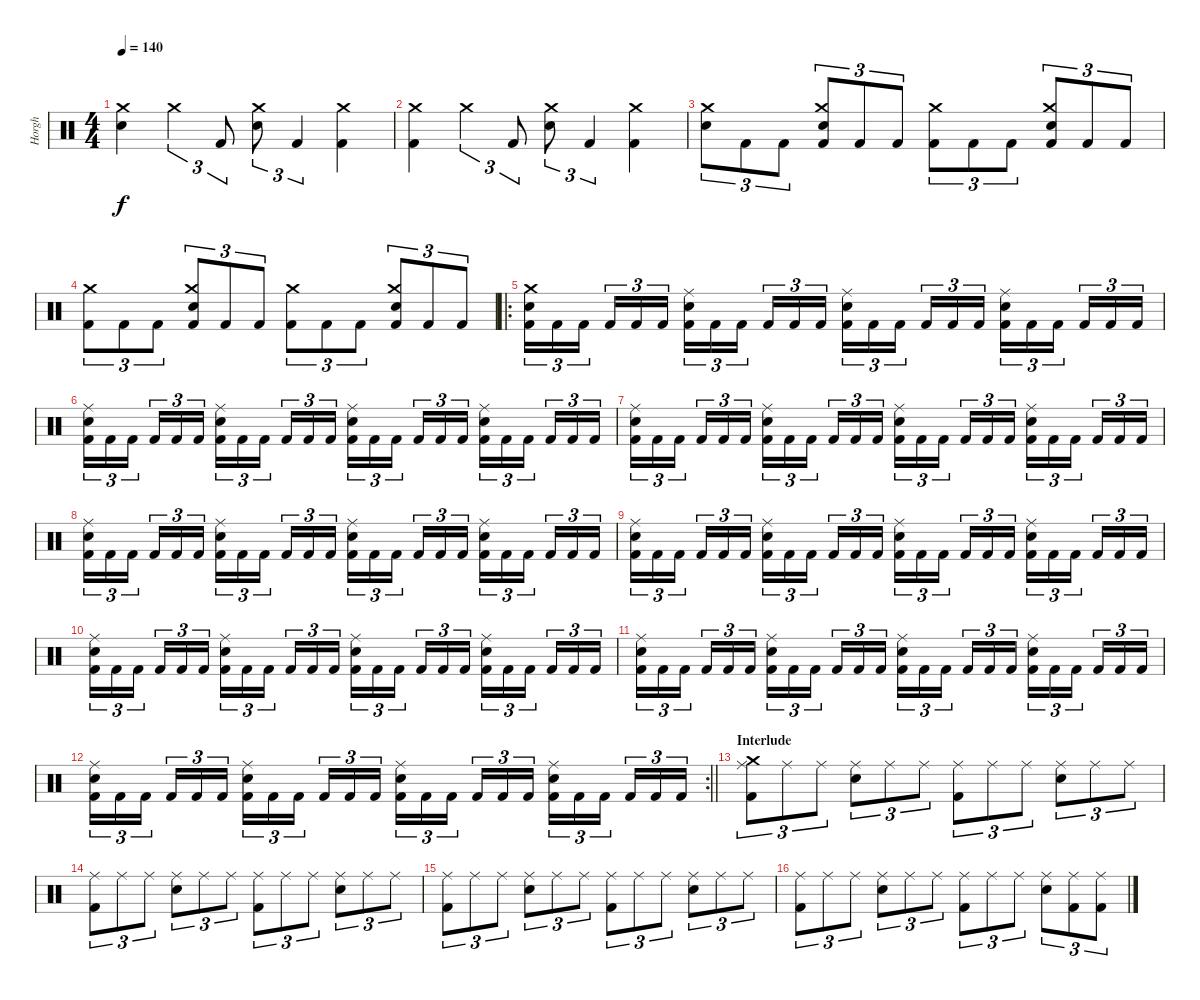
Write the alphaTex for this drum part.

\track ("Horgh" "Horgh") {instrument percussion}
\staff {score}
\articulation defaults
\ts (4 4)
\tempo 140
\clef neutral
\ks c
("Electric Snare (hit)" "Crash medium (hit)").4{dy f} "Crash medium (hit)".4{tu (3 2)} "Kick (hit) 2".8{tu (3 2)} ("Electric Snare (hit)" "Crash medium (hit)").8{tu (3 2)} "Kick (hit) 2".4{tu (3 2)} ("Kick (hit) 2" "Crash medium (hit)").4 |
("Kick (hit) 2" "Crash medium (hit)").4 "Crash medium (hit)".4{tu (3 2)} "Kick (hit) 2".8{tu (3 2)} ("Electric Snare (hit)" "Crash medium (hit)").8{tu (3 2)} "Kick (hit) 2".4{tu (3 2)} ("Kick (hit) 2" "Crash medium (hit)").4 |
("Electric Snare (hit)" "Crash medium (hit)").8{tu (3 2)} "Kick (hit) 2".8{tu (3 2)} "Kick (hit) 2".8{tu (3 2)} ("Kick (hit) 2" "Electric Snare (hit)" "Crash medium (hit)").8{tu (3 2)} "Kick (hit) 2".8{tu (3 2)} "Kick (hit) 2".8{tu (3 2)} ("Kick (hit) 2" "Crash medium (hit)").8{tu (3 2)} "Kick (hit) 2".8{tu (3 2)} "Kick (hit) 2".8{tu (3 2)} ("Kick (hit) 2" "Electric Snare (hit)" "Crash medium (hit)").8{tu (3 2)} "Kick (hit) 2".8{tu (3 2)} "Kick (hit) 2".8{tu (3 2)} |
("Kick (hit) 2" "Crash medium (hit)").8{tu (3 2)} "Kick (hit) 2".8{tu (3 2)} "Kick (hit) 2".8{tu (3 2)} ("Kick (hit) 2" "Electric Snare (hit)" "Crash medium (hit)").8{tu (3 2)} "Kick (hit) 2".8{tu (3 2)} "Kick (hit) 2".8{tu (3 2)} ("Kick (hit) 2" "Crash medium (hit)").8{tu (3 2)} "Kick (hit) 2".8{tu (3 2)} "Kick (hit) 2".8{tu (3 2)} ("Kick (hit) 2" "Electric Snare (hit)" "Crash medium (hit)").8{tu (3 2)} "Kick (hit) 2".8{tu (3 2)} "Kick (hit) 2".8{tu (3 2)} |
\ro
("Kick (hit) 2" "Snare (hit) 2" "Crash medium (hit)").16{tu (3 2)} "Kick (hit) 2".16{tu (3 2)} "Kick (hit) 2".16{tu (3 2) beam splitsecondary} "Kick (hit) 2".16{tu (3 2)} "Kick (hit) 2".16{tu (3 2)} "Kick (hit) 2".16{tu (3 2)} ("Kick (hit) 2" "Snare (hit) 2" "Ride (middle)").16{tu (3 2)} "Kick (hit) 2".16{tu (3 2)} "Kick (hit) 2".16{tu (3 2) beam splitsecondary} "Kick (hit) 2".16{tu (3 2)} "Kick (hit) 2".16{tu (3 2)} "Kick (hit) 2".16{tu (3 2)} ("Kick (hit) 2" "Snare (hit) 2" "Ride (middle)").16{tu (3 2)} "Kick (hit) 2".16{tu (3 2)} "Kick (hit) 2".16{tu (3 2) beam splitsecondary} "Kick (hit) 2".16{tu (3 2)} "Kick (hit) 2".16{tu (3 2)} "Kick (hit) 2".16{tu (3 2)} ("Kick (hit) 2" "Snare (hit) 2" "Ride (middle)").16{tu (3 2)} "Kick (hit) 2".16{tu (3 2)} "Kick (hit) 2".16{tu (3 2) beam splitsecondary} "Kick (hit) 2".16{tu (3 2)} "Kick (hit) 2".16{tu (3 2)} "Kick (hit) 2".16{tu (3 2)} |
("Kick (hit) 2" "Snare (hit) 2" "Ride (middle)").16{tu (3 2)} "Kick (hit) 2".16{tu (3 2)} "Kick (hit) 2".16{tu (3 2) beam splitsecondary} "Kick (hit) 2".16{tu (3 2)} "Kick (hit) 2".16{tu (3 2)} "Kick (hit) 2".16{tu (3 2)} ("Kick (hit) 2" "Snare (hit) 2" "Ride (middle)").16{tu (3 2)} "Kick (hit) 2".16{tu (3 2)} "Kick (hit) 2".16{tu (3 2) beam splitsecondary} "Kick (hit) 2".16{tu (3 2)} "Kick (hit) 2".16{tu (3 2)} "Kick (hit) 2".16{tu (3 2)} ("Kick (hit) 2" "Snare (hit) 2" "Ride (middle)").16{tu (3 2)} "Kick (hit) 2".16{tu (3 2)} "Kick (hit) 2".16{tu (3 2) beam splitsecondary} "Kick (hit) 2".16{tu (3 2)} "Kick (hit) 2".16{tu (3 2)} "Kick (hit) 2".16{tu (3 2)} ("Kick (hit) 2" "Snare (hit) 2" "Ride (middle)").16{tu (3 2)} "Kick (hit) 2".16{tu (3 2)} "Kick (hit) 2".16{tu (3 2) beam splitsecondary} "Kick (hit) 2".16{tu (3 2)} "Kick (hit) 2".16{tu (3 2)} "Kick (hit) 2".16{tu (3 2)} |
("Kick (hit) 2" "Snare (hit) 2" "Ride (middle)").16{tu (3 2)} "Kick (hit) 2".16{tu (3 2)} "Kick (hit) 2".16{tu (3 2) beam splitsecondary} "Kick (hit) 2".16{tu (3 2)} "Kick (hit) 2".16{tu (3 2)} "Kick (hit) 2".16{tu (3 2)} ("Kick (hit) 2" "Snare (hit) 2" "Ride (middle)").16{tu (3 2)} "Kick (hit) 2".16{tu (3 2)} "Kick (hit) 2".16{tu (3 2) beam splitsecondary} "Kick (hit) 2".16{tu (3 2)} "Kick (hit) 2".16{tu (3 2)} "Kick (hit) 2".16{tu (3 2)} ("Kick (hit) 2" "Snare (hit) 2" "Ride (middle)").16{tu (3 2)} "Kick (hit) 2".16{tu (3 2)} "Kick (hit) 2".16{tu (3 2) beam splitsecondary} "Kick (hit) 2".16{tu (3 2)} "Kick (hit) 2".16{tu (3 2)} "Kick (hit) 2".16{tu (3 2)} ("Kick (hit) 2" "Snare (hit) 2" "Ride (middle)").16{tu (3 2)} "Kick (hit) 2".16{tu (3 2)} "Kick (hit) 2".16{tu (3 2) beam splitsecondary} "Kick (hit) 2".16{tu (3 2)} "Kick (hit) 2".16{tu (3 2)} "Kick (hit) 2".16{tu (3 2)} |
("Kick (hit) 2" "Snare (hit) 2" "Ride (middle)").16{tu (3 2)} "Kick (hit) 2".16{tu (3 2)} "Kick (hit) 2".16{tu (3 2) beam splitsecondary} "Kick (hit) 2".16{tu (3 2)} "Kick (hit) 2".16{tu (3 2)} "Kick (hit) 2".16{tu (3 2)} ("Kick (hit) 2" "Snare (hit) 2" "Ride (middle)").16{tu (3 2)} "Kick (hit) 2".16{tu (3 2)} "Kick (hit) 2".16{tu (3 2) beam splitsecondary} "Kick (hit) 2".16{tu (3 2)} "Kick (hit) 2".16{tu (3 2)} "Kick (hit) 2".16{tu (3 2)} ("Kick (hit) 2" "Snare (hit) 2" "Ride (middle)").16{tu (3 2)} "Kick (hit) 2".16{tu (3 2)} "Kick (hit) 2".16{tu (3 2) beam splitsecondary} "Kick (hit) 2".16{tu (3 2)} "Kick (hit) 2".16{tu (3 2)} "Kick (hit) 2".16{tu (3 2)} ("Kick (hit) 2" "Snare (hit) 2" "Ride (middle)").16{tu (3 2)} "Kick (hit) 2".16{tu (3 2)} "Kick (hit) 2".16{tu (3 2) beam splitsecondary} "Kick (hit) 2".16{tu (3 2)} "Kick (hit) 2".16{tu (3 2)} "Kick (hit) 2".16{tu (3 2)} |
("Kick (hit) 2" "Snare (hit) 2" "Ride (middle)").16{tu (3 2)} "Kick (hit) 2".16{tu (3 2)} "Kick (hit) 2".16{tu (3 2) beam splitsecondary} "Kick (hit) 2".16{tu (3 2)} "Kick (hit) 2".16{tu (3 2)} "Kick (hit) 2".16{tu (3 2)} ("Kick (hit) 2" "Snare (hit) 2" "Ride (middle)").16{tu (3 2)} "Kick (hit) 2".16{tu (3 2)} "Kick (hit) 2".16{tu (3 2) beam splitsecondary} "Kick (hit) 2".16{tu (3 2)} "Kick (hit) 2".16{tu (3 2)} "Kick (hit) 2".16{tu (3 2)} ("Kick (hit) 2" "Snare (hit) 2" "Ride (middle)").16{tu (3 2)} "Kick (hit) 2".16{tu (3 2)} "Kick (hit) 2".16{tu (3 2) beam splitsecondary} "Kick (hit) 2".16{tu (3 2)} "Kick (hit) 2".16{tu (3 2)} "Kick (hit) 2".16{tu (3 2)} ("Kick (hit) 2" "Snare (hit) 2" "Ride (middle)").16{tu (3 2)} "Kick (hit) 2".16{tu (3 2)} "Kick (hit) 2".16{tu (3 2) beam splitsecondary} "Kick (hit) 2".16{tu (3 2)} "Kick (hit) 2".16{tu (3 2)} "Kick (hit) 2".16{tu (3 2)} |
("Kick (hit) 2" "Snare (hit) 2" "Ride (middle)").16{tu (3 2)} "Kick (hit) 2".16{tu (3 2)} "Kick (hit) 2".16{tu (3 2) beam splitsecondary} "Kick (hit) 2".16{tu (3 2)} "Kick (hit) 2".16{tu (3 2)} "Kick (hit) 2".16{tu (3 2)} ("Kick (hit) 2" "Snare (hit) 2" "Ride (middle)").16{tu (3 2)} "Kick (hit) 2".16{tu (3 2)} "Kick (hit) 2".16{tu (3 2) beam splitsecondary} "Kick (hit) 2".16{tu (3 2)} "Kick (hit) 2".16{tu (3 2)} "Kick (hit) 2".16{tu (3 2)} ("Kick (hit) 2" "Snare (hit) 2" "Ride (middle)").16{tu (3 2)} "Kick (hit) 2".16{tu (3 2)} "Kick (hit) 2".16{tu (3 2) beam splitsecondary} "Kick (hit) 2".16{tu (3 2)} "Kick (hit) 2".16{tu (3 2)} "Kick (hit) 2".16{tu (3 2)} ("Kick (hit) 2" "Snare (hit) 2" "Ride (middle)").16{tu (3 2)} "Kick (hit) 2".16{tu (3 2)} "Kick (hit) 2".16{tu (3 2) beam splitsecondary} "Kick (hit) 2".16{tu (3 2)} "Kick (hit) 2".16{tu (3 2)} "Kick (hit) 2".16{tu (3 2)} |
("Kick (hit) 2" "Snare (hit) 2" "Ride (middle)").16{tu (3 2)} "Kick (hit) 2".16{tu (3 2)} "Kick (hit) 2".16{tu (3 2) beam splitsecondary} "Kick (hit) 2".16{tu (3 2)} "Kick (hit) 2".16{tu (3 2)} "Kick (hit) 2".16{tu (3 2)} ("Kick (hit) 2" "Snare (hit) 2" "Ride (middle)").16{tu (3 2)} "Kick (hit) 2".16{tu (3 2)} "Kick (hit) 2".16{tu (3 2) beam splitsecondary} "Kick (hit) 2".16{tu (3 2)} "Kick (hit) 2".16{tu (3 2)} "Kick (hit) 2".16{tu (3 2)} ("Kick (hit) 2" "Snare (hit) 2" "Ride (middle)").16{tu (3 2)} "Kick (hit) 2".16{tu (3 2)} "Kick (hit) 2".16{tu (3 2) beam splitsecondary} "Kick (hit) 2".16{tu (3 2)} "Kick (hit) 2".16{tu (3 2)} "Kick (hit) 2".16{tu (3 2)} ("Kick (hit) 2" "Snare (hit) 2" "Ride (middle)").16{tu (3 2)} "Kick (hit) 2".16{tu (3 2)} "Kick (hit) 2".16{tu (3 2) beam splitsecondary} "Kick (hit) 2".16{tu (3 2)} "Kick (hit) 2".16{tu (3 2)} "Kick (hit) 2".16{tu (3 2)} |
\rc 2
\barLineRight lightlight
("Kick (hit) 2" "Snare (hit) 2" "Ride (middle)").16{tu (3 2)} "Kick (hit) 2".16{tu (3 2)} "Kick (hit) 2".16{tu (3 2) beam splitsecondary} "Kick (hit) 2".16{tu (3 2)} "Kick (hit) 2".16{tu (3 2)} "Kick (hit) 2".16{tu (3 2)} ("Kick (hit) 2" "Snare (hit) 2" "Ride (middle)").16{tu (3 2)} "Kick (hit) 2".16{tu (3 2)} "Kick (hit) 2".16{tu (3 2) beam splitsecondary} "Kick (hit) 2".16{tu (3 2)} "Kick (hit) 2".16{tu (3 2)} "Kick (hit) 2".16{tu (3 2)} ("Kick (hit) 2" "Snare (hit) 2" "Ride (middle)").16{tu (3 2)} "Kick (hit) 2".16{tu (3 2)} "Kick (hit) 2".16{tu (3 2) beam splitsecondary} "Kick (hit) 2".16{tu (3 2)} "Kick (hit) 2".16{tu (3 2)} "Kick (hit) 2".16{tu (3 2)} ("Kick (hit) 2" "Snare (hit) 2" "Ride (middle)").16{tu (3 2)} "Kick (hit) 2".16{tu (3 2)} "Kick (hit) 2".16{tu (3 2) beam splitsecondary} "Kick (hit) 2".16{tu (3 2)} "Kick (hit) 2".16{tu (3 2)} "Kick (hit) 2".16{tu (3 2)} |
\section ("" "Interlude")
("Kick (hit) 2" "Ride (middle)" "Crash medium (hit)").8{tu (3 2)} "Ride (middle)".8{tu (3 2)} "Ride (middle)".8{tu (3 2)} ("Electric Snare (hit)" "Ride (middle)").8{tu (3 2)} "Ride (middle)".8{tu (3 2)} "Ride (middle)".8{tu (3 2)} ("Kick (hit) 2" "Ride (middle)").8{tu (3 2)} "Ride (middle)".8{tu (3 2)} "Ride (middle)".8{tu (3 2)} ("Electric Snare (hit)" "Ride (middle)").8{tu (3 2)} "Ride (middle)".8{tu (3 2)} "Ride (middle)".8{tu (3 2)} |
("Kick (hit) 2" "Ride (middle)").8{tu (3 2)} "Ride (middle)".8{tu (3 2)} "Ride (middle)".8{tu (3 2)} ("Electric Snare (hit)" "Ride (middle)").8{tu (3 2)} "Ride (middle)".8{tu (3 2)} "Ride (middle)".8{tu (3 2)} ("Kick (hit) 2" "Ride (middle)").8{tu (3 2)} "Ride (middle)".8{tu (3 2)} "Ride (middle)".8{tu (3 2)} ("Electric Snare (hit)" "Ride (middle)").8{tu (3 2)} "Ride (middle)".8{tu (3 2)} "Ride (middle)".8{tu (3 2)} |
("Kick (hit) 2" "Ride (middle)").8{tu (3 2)} "Ride (middle)".8{tu (3 2)} "Ride (middle)".8{tu (3 2)} ("Electric Snare (hit)" "Ride (middle)").8{tu (3 2)} "Ride (middle)".8{tu (3 2)} "Ride (middle)".8{tu (3 2)} ("Kick (hit) 2" "Ride (middle)").8{tu (3 2)} "Ride (middle)".8{tu (3 2)} "Ride (middle)".8{tu (3 2)} ("Electric Snare (hit)" "Ride (middle)").8{tu (3 2)} "Ride (middle)".8{tu (3 2)} "Ride (middle)".8{tu (3 2)} |
("Kick (hit) 2" "Ride (middle)").8{tu (3 2)} "Ride (middle)".8{tu (3 2)} "Ride (middle)".8{tu (3 2)} ("Electric Snare (hit)" "Ride (middle)").8{tu (3 2)} "Ride (middle)".8{tu (3 2)} "Ride (middle)".8{tu (3 2)} ("Kick (hit) 2" "Ride (middle)").8{tu (3 2)} "Ride (middle)".8{tu (3 2)} "Ride (middle)".8{tu (3 2)} ("Electric Snare (hit)" "Ride (middle)").8{tu (3 2)} ("Kick (hit) 2" "Ride (middle)").8{tu (3 2)} ("Kick (hit) 2" "Ride (middle)").8{tu (3 2)}
